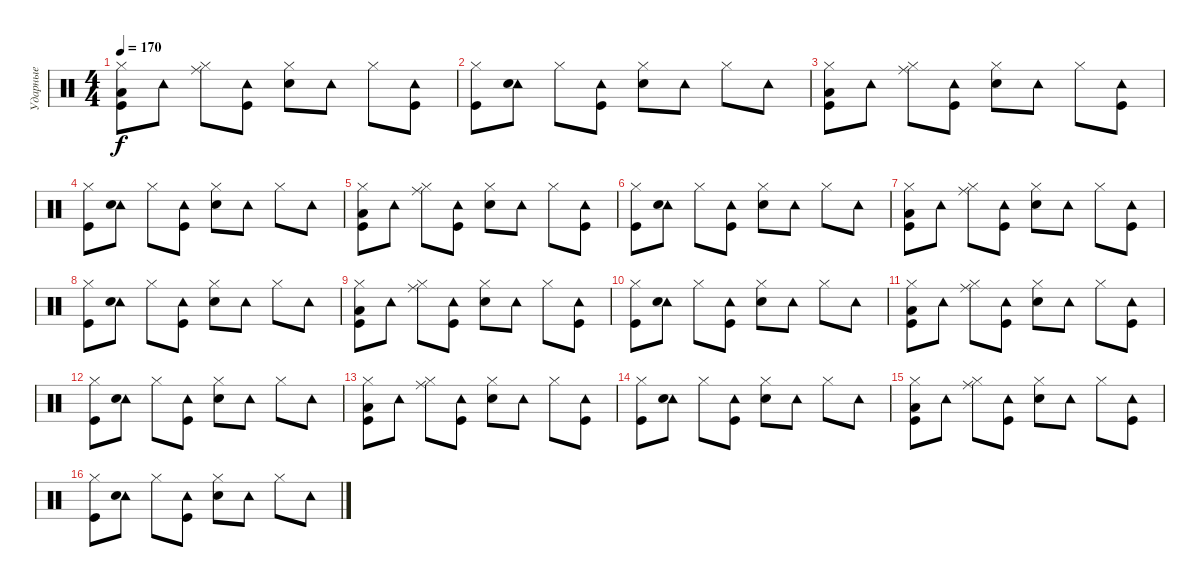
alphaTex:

\track ("Ударные" "Ударные") {instrument percussion}
\staff {score}
\articulation defaults
\ts (4 4)
\tempo 170
\clef neutral
\ks c
("Hi-Hat (closed)" "Kick (hit)" "Low Floor Tom (hit)").8{dy f volume 8 balance 16} "Tambourine (hit)".8 ("Hi-Hat (closed)" "Ride (middle)").8 ("Tambourine (hit)" "Kick (hit)").8 ("Hi-Hat (closed)" "Electric Snare (hit)").8 "Tambourine (hit)".8 "Hi-Hat (closed)".8 ("Tambourine (hit)" "Kick (hit)").8 |
("Hi-Hat (closed)" "Kick (hit)").8{volume 8 balance 8} ("Tambourine (hit)" "Electric Snare (hit)").8 "Hi-Hat (closed)".8 ("Tambourine (hit)" "Kick (hit)").8 ("Hi-Hat (closed)" "Electric Snare (hit)").8 "Tambourine (hit)".8 "Hi-Hat (closed)".8 "Tambourine (hit)".8 |
("Hi-Hat (closed)" "Kick (hit)" "Low Floor Tom (hit)").8{volume 8 balance 0} "Tambourine (hit)".8 ("Hi-Hat (closed)" "Ride (middle)").8 ("Tambourine (hit)" "Kick (hit)").8 ("Hi-Hat (closed)" "Electric Snare (hit)").8 "Tambourine (hit)".8 "Hi-Hat (closed)".8 ("Tambourine (hit)" "Kick (hit)").8 |
("Hi-Hat (closed)" "Kick (hit)").8{volume 8 balance 8} ("Tambourine (hit)" "Electric Snare (hit)").8 "Hi-Hat (closed)".8 ("Tambourine (hit)" "Kick (hit)").8 ("Hi-Hat (closed)" "Electric Snare (hit)").8 "Tambourine (hit)".8 "Hi-Hat (closed)".8 "Tambourine (hit)".8 |
("Hi-Hat (closed)" "Kick (hit)" "Low Floor Tom (hit)").8{volume 8 balance 16} "Tambourine (hit)".8 ("Hi-Hat (closed)" "Ride (middle)").8 ("Tambourine (hit)" "Kick (hit)").8 ("Hi-Hat (closed)" "Electric Snare (hit)").8 "Tambourine (hit)".8 "Hi-Hat (closed)".8 ("Tambourine (hit)" "Kick (hit)").8 |
("Hi-Hat (closed)" "Kick (hit)").8{volume 8 balance 8} ("Tambourine (hit)" "Electric Snare (hit)").8 "Hi-Hat (closed)".8 ("Tambourine (hit)" "Kick (hit)").8 ("Hi-Hat (closed)" "Electric Snare (hit)").8 "Tambourine (hit)".8 "Hi-Hat (closed)".8 "Tambourine (hit)".8 |
("Hi-Hat (closed)" "Kick (hit)" "Low Floor Tom (hit)").8{volume 8 balance 0} "Tambourine (hit)".8 ("Hi-Hat (closed)" "Ride (middle)").8 ("Tambourine (hit)" "Kick (hit)").8 ("Hi-Hat (closed)" "Electric Snare (hit)").8 "Tambourine (hit)".8 "Hi-Hat (closed)".8 ("Tambourine (hit)" "Kick (hit)").8 |
("Hi-Hat (closed)" "Kick (hit)").8{volume 8 balance 8} ("Tambourine (hit)" "Electric Snare (hit)").8 "Hi-Hat (closed)".8 ("Tambourine (hit)" "Kick (hit)").8 ("Hi-Hat (closed)" "Electric Snare (hit)").8 "Tambourine (hit)".8 "Hi-Hat (closed)".8 "Tambourine (hit)".8 |
("Hi-Hat (closed)" "Kick (hit)" "Low Floor Tom (hit)").8{volume 8 balance 16} "Tambourine (hit)".8 ("Hi-Hat (closed)" "Ride (middle)").8 ("Tambourine (hit)" "Kick (hit)").8 ("Hi-Hat (closed)" "Electric Snare (hit)").8 "Tambourine (hit)".8 "Hi-Hat (closed)".8 ("Tambourine (hit)" "Kick (hit)").8 |
("Hi-Hat (closed)" "Kick (hit)").8{volume 8 balance 8} ("Tambourine (hit)" "Electric Snare (hit)").8 "Hi-Hat (closed)".8 ("Tambourine (hit)" "Kick (hit)").8 ("Hi-Hat (closed)" "Electric Snare (hit)").8 "Tambourine (hit)".8 "Hi-Hat (closed)".8 "Tambourine (hit)".8 |
("Hi-Hat (closed)" "Kick (hit)" "Low Floor Tom (hit)").8{volume 8 balance 0} "Tambourine (hit)".8 ("Hi-Hat (closed)" "Ride (middle)").8 ("Tambourine (hit)" "Kick (hit)").8 ("Hi-Hat (closed)" "Electric Snare (hit)").8 "Tambourine (hit)".8 "Hi-Hat (closed)".8 ("Tambourine (hit)" "Kick (hit)").8 |
("Hi-Hat (closed)" "Kick (hit)").8{volume 8 balance 8} ("Tambourine (hit)" "Electric Snare (hit)").8 "Hi-Hat (closed)".8 ("Tambourine (hit)" "Kick (hit)").8 ("Hi-Hat (closed)" "Electric Snare (hit)").8 "Tambourine (hit)".8 "Hi-Hat (closed)".8 "Tambourine (hit)".8 |
("Hi-Hat (closed)" "Kick (hit)" "Low Floor Tom (hit)").8{volume 8 balance 16} "Tambourine (hit)".8 ("Hi-Hat (closed)" "Ride (middle)").8 ("Tambourine (hit)" "Kick (hit)").8 ("Hi-Hat (closed)" "Electric Snare (hit)").8 "Tambourine (hit)".8 "Hi-Hat (closed)".8 ("Tambourine (hit)" "Kick (hit)").8 |
("Hi-Hat (closed)" "Kick (hit)").8{volume 8 balance 8} ("Tambourine (hit)" "Electric Snare (hit)").8 "Hi-Hat (closed)".8 ("Tambourine (hit)" "Kick (hit)").8 ("Hi-Hat (closed)" "Electric Snare (hit)").8 "Tambourine (hit)".8 "Hi-Hat (closed)".8 "Tambourine (hit)".8 |
("Hi-Hat (closed)" "Kick (hit)" "Low Floor Tom (hit)").8{volume 8 balance 0} "Tambourine (hit)".8 ("Hi-Hat (closed)" "Ride (middle)").8 ("Tambourine (hit)" "Kick (hit)").8 ("Hi-Hat (closed)" "Electric Snare (hit)").8 "Tambourine (hit)".8 "Hi-Hat (closed)".8 ("Tambourine (hit)" "Kick (hit)").8 |
("Hi-Hat (closed)" "Kick (hit)").8{volume 8 balance 8} ("Tambourine (hit)" "Electric Snare (hit)").8 "Hi-Hat (closed)".8 ("Tambourine (hit)" "Kick (hit)").8 ("Hi-Hat (closed)" "Electric Snare (hit)").8 "Tambourine (hit)".8 "Hi-Hat (closed)".8 "Tambourine (hit)".8
